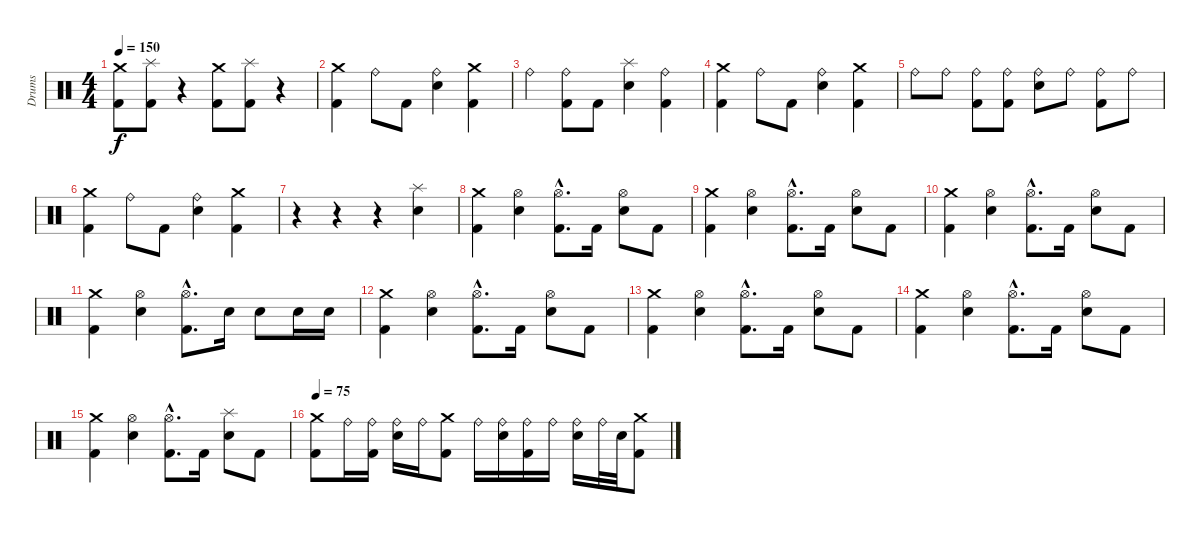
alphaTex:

\track ("Drums" "Drums") {instrument percussion}
\staff {score}
\articulation defaults
\ts (4 4)
\tempo 150
\clef neutral
\ks c
("Crash medium (hit)" "Kick (hit) 2").8{dy f} ("Splash (hit)" "Kick (hit) 2").8 r.4 ("Crash medium (hit)" "Kick (hit) 2").8 ("Splash (hit)" "Kick (hit) 2").8 r.4 |
("Crash medium (hit)" "Kick (hit) 2").4 "Ride (bell)".8 "Kick (hit) 2".8 ("Ride (bell)" "Electric Snare (hit)").4 ("Crash medium (hit)" "Kick (hit) 2").4 |
"Ride (bell)".4 ("Ride (bell)" "Kick (hit) 2").8 "Kick (hit) 2".8 ("Splash (hit)" "Electric Snare (hit)").4 ("Ride (bell)" "Kick (hit) 2").4 |
("Crash medium (hit)" "Kick (hit) 2").4 "Ride (bell)".8 "Kick (hit) 2".8 ("Ride (bell)" "Electric Snare (hit)").4 ("Crash medium (hit)" "Kick (hit) 2").4 |
"Ride (bell)".8 "Ride (bell)".8 ("Ride (bell)" "Kick (hit) 2").8 ("Ride (bell)" "Kick (hit) 2").8 ("Ride (bell)" "Electric Snare (hit)").8 "Ride (bell)".8 ("Ride (bell)" "Kick (hit) 2").8 "Ride (bell)".8 |
("Crash medium (hit)" "Kick (hit) 2").4 "Ride (bell)".8 "Kick (hit) 2".8 ("Ride (bell)" "Electric Snare (hit)").4 ("Crash medium (hit)" "Kick (hit) 2").4 |
r.4 r.4 r.4 ("Splash (hit)" "Electric Snare (hit)").4 |
("Crash medium (hit)" "Kick (hit) 2").4 ("Hi-Hat (open)" "Electric Snare (hit)").4 ("Hi-Hat (open)"{hac} "Kick (hit) 2"{hac}).8{d} "Kick (hit) 2".16 ("Hi-Hat (open)" "Electric Snare (hit)").8 "Kick (hit) 2".8 |
("Crash medium (hit)" "Kick (hit) 2").4 ("Hi-Hat (open)" "Electric Snare (hit)").4 ("Hi-Hat (open)"{hac} "Kick (hit) 2"{hac}).8{d} "Kick (hit) 2".16 ("Hi-Hat (open)" "Electric Snare (hit)").8 "Kick (hit) 2".8 |
("Crash medium (hit)" "Kick (hit) 2").4 ("Hi-Hat (open)" "Electric Snare (hit)").4 ("Hi-Hat (open)"{hac} "Kick (hit) 2"{hac}).8{d} "Kick (hit) 2".16 ("Hi-Hat (open)" "Electric Snare (hit)").8 "Kick (hit) 2".8 |
("Crash medium (hit)" "Kick (hit) 2").4 ("Hi-Hat (open)" "Electric Snare (hit)").4 ("Hi-Hat (open)"{hac} "Kick (hit) 2"{hac}).8{d} "Electric Snare (hit)".16 "Electric Snare (hit)".8 "Electric Snare (hit)".16 "Electric Snare (hit)".16 |
("Crash medium (hit)" "Kick (hit) 2").4 ("Hi-Hat (open)" "Electric Snare (hit)").4 ("Hi-Hat (open)"{hac} "Kick (hit) 2"{hac}).8{d} "Kick (hit) 2".16 ("Hi-Hat (open)" "Electric Snare (hit)").8 "Kick (hit) 2".8 |
("Crash medium (hit)" "Kick (hit) 2").4 ("Hi-Hat (open)" "Electric Snare (hit)").4 ("Hi-Hat (open)"{hac} "Kick (hit) 2"{hac}).8{d} "Kick (hit) 2".16 ("Hi-Hat (open)" "Electric Snare (hit)").8 "Kick (hit) 2".8 |
("Crash medium (hit)" "Kick (hit) 2").4 ("Hi-Hat (open)" "Electric Snare (hit)").4 ("Hi-Hat (open)"{hac} "Kick (hit) 2"{hac}).8{d} "Kick (hit) 2".16 ("Hi-Hat (open)" "Electric Snare (hit)").8 "Kick (hit) 2".8 |
("Crash medium (hit)" "Kick (hit) 2").4 ("Hi-Hat (open)" "Electric Snare (hit)").4 ("Hi-Hat (open)"{hac} "Kick (hit) 2"{hac}).8{d} "Kick (hit) 2".16 ("Splash (hit)" "Electric Snare (hit)").8 "Kick (hit) 2".8 |
\tempo 75
("Crash medium (hit)" "Kick (hit) 2").8 "Ride (bell)".16 ("Ride (bell)" "Kick (hit) 2").16 ("Ride (bell)" "Electric Snare (hit)").16 "Ride (bell)".16 ("Crash medium (hit)" "Kick (hit) 2").8 "Ride (bell)".16 ("Ride (bell)" "Electric Snare (hit)").16 ("Ride (bell)" "Kick (hit) 2").16 "Ride (bell)".16 ("Ride (bell)" "Electric Snare (hit)").16 "Ride (bell)".32 "Electric Snare (hit)".32 ("Crash medium (hit)" "Kick (hit) 2").8
